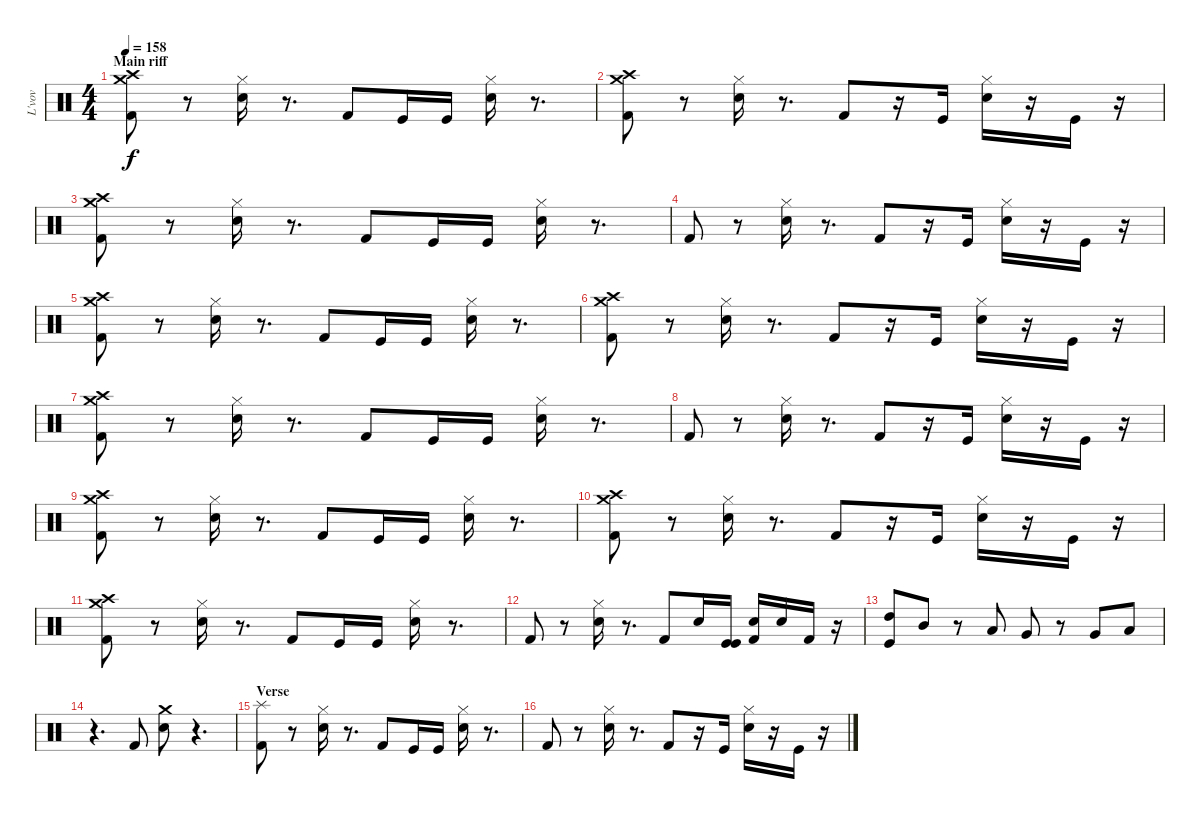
\track ("L'vov " "L'vov ") {instrument percussion}
\staff {score}
\articulation defaults
\ts (4 4)
\section ("" "Main riff")
\tempo 158
\clef neutral
\ks c
("Kick (hit) 2" "Crash high (hit)" "Crash medium (hit)").8{dy f volume 16} r.8 ("Snare (hit) 2" "Hi-Hat (closed)").16 r.8{d} "Kick (hit) 2".8 "Kick (hit)".16 "Kick (hit)".16 ("Snare (hit) 2" "Hi-Hat (closed)").16 r.8{d} |
("Kick (hit) 2" "Crash high (hit)" "Crash medium (hit)").8 r.8 ("Snare (hit) 2" "Hi-Hat (closed)").16 r.8{d} "Kick (hit) 2".8 r.16 "Kick (hit)".16 ("Electric Snare (hit)" "Hi-Hat (closed)").16 r.16 "Kick (hit)".16 r.16 |
("Kick (hit) 2" "Crash high (hit)" "Crash medium (hit)").8 r.8 ("Snare (hit) 2" "Hi-Hat (closed)").16 r.8{d} "Kick (hit) 2".8 "Kick (hit)".16 "Kick (hit)".16 ("Snare (hit) 2" "Hi-Hat (closed)").16 r.8{d} |
"Kick (hit) 2".8 r.8 ("Snare (hit) 2" "Hi-Hat (closed)").16 r.8{d} "Kick (hit) 2".8 r.16 "Kick (hit)".16 ("Electric Snare (hit)" "Hi-Hat (closed)").16 r.16 "Kick (hit)".16 r.16 |
("Kick (hit) 2" "Crash high (hit)" "Crash medium (hit)").8 r.8 ("Snare (hit) 2" "Hi-Hat (closed)").16 r.8{d} "Kick (hit) 2".8 "Kick (hit)".16 "Kick (hit)".16 ("Snare (hit) 2" "Hi-Hat (closed)").16 r.8{d} |
("Kick (hit) 2" "Crash high (hit)" "Crash medium (hit)").8 r.8 ("Snare (hit) 2" "Hi-Hat (closed)").16 r.8{d} "Kick (hit) 2".8 r.16 "Kick (hit)".16 ("Electric Snare (hit)" "Hi-Hat (closed)").16 r.16 "Kick (hit)".16 r.16 |
("Kick (hit) 2" "Crash high (hit)" "Crash medium (hit)").8 r.8 ("Snare (hit) 2" "Hi-Hat (closed)").16 r.8{d} "Kick (hit) 2".8 "Kick (hit)".16 "Kick (hit)".16 ("Snare (hit) 2" "Hi-Hat (closed)").16 r.8{d} |
"Kick (hit) 2".8 r.8 ("Snare (hit) 2" "Hi-Hat (closed)").16 r.8{d} "Kick (hit) 2".8 r.16 "Kick (hit)".16 ("Electric Snare (hit)" "Hi-Hat (closed)").16 r.16 "Kick (hit)".16 r.16 |
("Kick (hit) 2" "Crash high (hit)" "Crash medium (hit)").8 r.8 ("Snare (hit) 2" "Hi-Hat (closed)").16 r.8{d} "Kick (hit) 2".8 "Kick (hit)".16 "Kick (hit)".16 ("Snare (hit) 2" "Hi-Hat (closed)").16 r.8{d} |
("Kick (hit) 2" "Crash high (hit)" "Crash medium (hit)").8 r.8 ("Snare (hit) 2" "Hi-Hat (closed)").16 r.8{d} "Kick (hit) 2".8 r.16 "Kick (hit)".16 ("Electric Snare (hit)" "Hi-Hat (closed)").16 r.16 "Kick (hit)".16 r.16 |
("Kick (hit) 2" "Crash high (hit)" "Crash medium (hit)").8 r.8 ("Snare (hit) 2" "Hi-Hat (closed)").16 r.8{d} "Kick (hit) 2".8 "Kick (hit)".16 "Kick (hit)".16 ("Snare (hit) 2" "Hi-Hat (closed)").16 r.8{d} |
"Kick (hit) 2".8 r.8 ("Snare (hit) 2" "Hi-Hat (closed)").16 r.8{d} "Kick (hit) 2".8 "Electric Snare (hit)".16 ("Kick (hit)" "Kick (hit)").16 ("Electric Snare (hit)" "Kick (hit) 2").16 "Electric Snare (hit)".16 "Kick (hit) 2".16 r.16 |
("Kick (hit)" "High Tom (hit)").8 "Mid Tom (hit)".8 r.8 "Low Tom (hit)".8 "Very Low Tom (hit)".8 r.8 "Very Low Tom (hit)".8 "Low Floor Tom (hit)".8 |
r.4{d} "Kick (hit) 2".8 ("Snare (hit) 2" "Crash medium (hit)").8 r.4{d} |
\section ("" "Verse")
("Splash (hit)" "Kick (hit) 2").8 r.8 ("Snare (hit) 2" "Hi-Hat (closed)").16 r.8{d} "Kick (hit) 2".8 "Kick (hit)".16 "Kick (hit)".16 ("Snare (hit) 2" "Hi-Hat (closed)").16 r.8{d} |
"Kick (hit) 2".8 r.8 ("Snare (hit) 2" "Hi-Hat (closed)").16 r.8{d} "Kick (hit) 2".8 r.16 "Kick (hit)".16 ("Electric Snare (hit)" "Hi-Hat (closed)").16 r.16 "Kick (hit)".16 r.16
